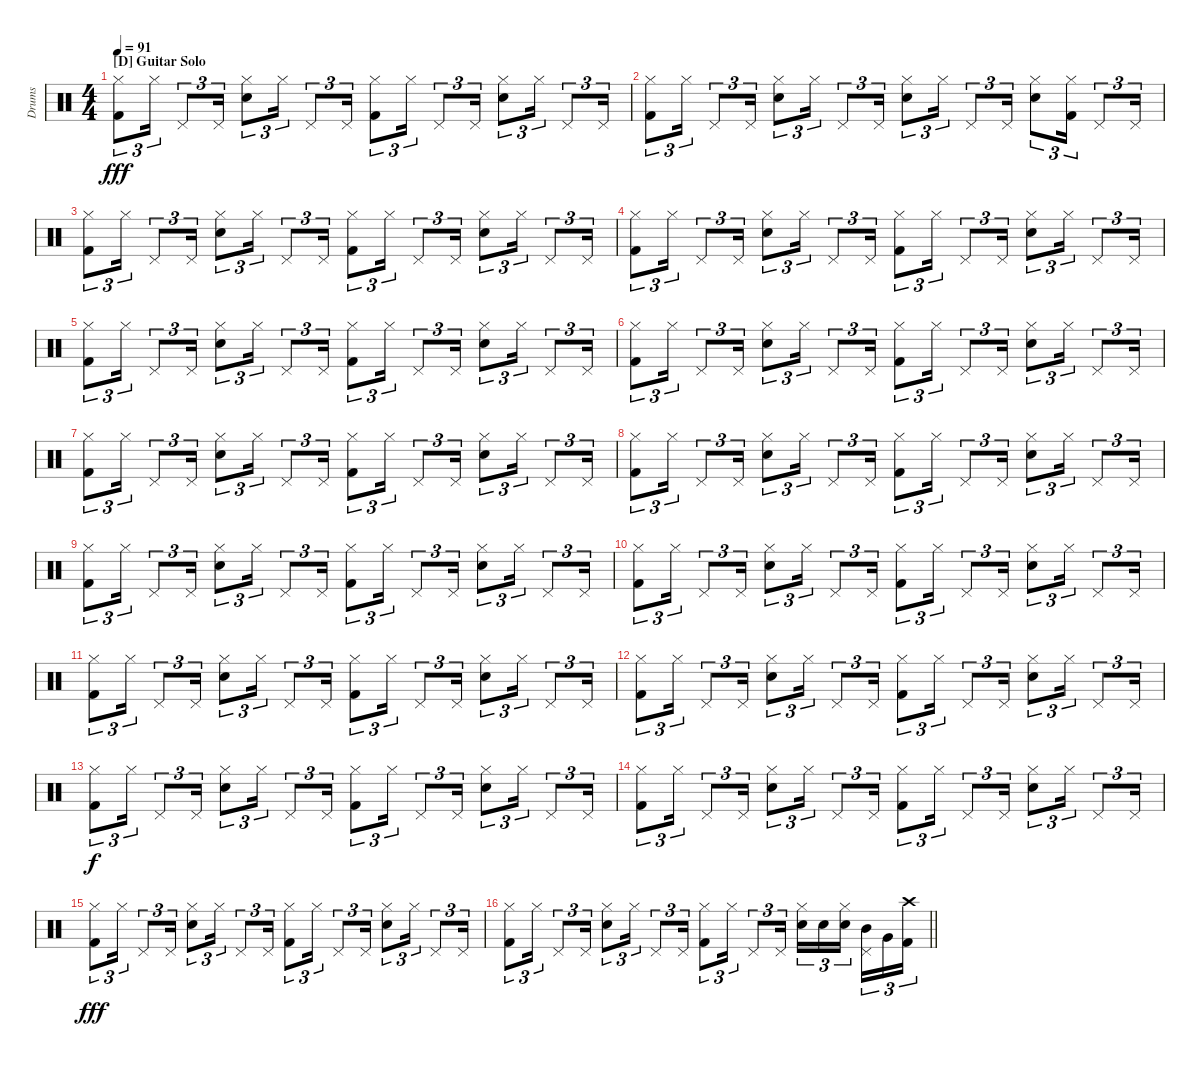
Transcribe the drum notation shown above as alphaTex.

\track ("Drums" "Drums") {instrument percussion}
\staff {score}
\articulation defaults
\ts (4 4)
\section ("" "[D] Guitar Solo")
\tempo 91
\clef neutral
\ks c
("Hi-Hat (closed)" "Kick (hit) 2").8{tu (3 2) dy fff} "Hi-Hat (closed)".16{tu (3 2)} "Pedal Hi-Hat (hit)".8{tu (3 2)} "Pedal Hi-Hat (hit)".16{tu (3 2)} ("Snare (hit) 2" "Hi-Hat (closed)").8{tu (3 2)} "Hi-Hat (closed)".16{tu (3 2)} "Pedal Hi-Hat (hit)".8{tu (3 2)} "Pedal Hi-Hat (hit)".16{tu (3 2)} ("Kick (hit) 2" "Hi-Hat (closed)").8{tu (3 2)} "Hi-Hat (closed)".16{tu (3 2)} "Pedal Hi-Hat (hit)".8{tu (3 2)} "Pedal Hi-Hat (hit)".16{tu (3 2)} ("Snare (hit) 2" "Hi-Hat (closed)").8{tu (3 2)} "Hi-Hat (closed)".16{tu (3 2)} "Pedal Hi-Hat (hit)".8{tu (3 2)} "Pedal Hi-Hat (hit)".16{tu (3 2)} |
("Hi-Hat (closed)" "Kick (hit) 2").8{tu (3 2)} "Hi-Hat (closed)".16{tu (3 2)} "Pedal Hi-Hat (hit)".8{tu (3 2)} "Pedal Hi-Hat (hit)".16{tu (3 2)} ("Snare (hit) 2" "Hi-Hat (closed)").8{tu (3 2)} "Hi-Hat (closed)".16{tu (3 2)} "Pedal Hi-Hat (hit)".8{tu (3 2)} "Pedal Hi-Hat (hit)".16{tu (3 2)} ("Hi-Hat (closed)" "Snare (hit) 2").8{tu (3 2)} "Hi-Hat (closed)".16{tu (3 2)} "Pedal Hi-Hat (hit)".8{tu (3 2)} "Pedal Hi-Hat (hit)".16{tu (3 2)} ("Hi-Hat (closed)" "Snare (hit) 2").8{tu (3 2)} ("Hi-Hat (closed)" "Kick (hit) 2").16{tu (3 2)} "Pedal Hi-Hat (hit)".8{tu (3 2)} "Pedal Hi-Hat (hit)".16{tu (3 2)} |
("Hi-Hat (closed)" "Kick (hit) 2").8{tu (3 2)} "Hi-Hat (closed)".16{tu (3 2)} "Pedal Hi-Hat (hit)".8{tu (3 2)} "Pedal Hi-Hat (hit)".16{tu (3 2)} ("Snare (hit) 2" "Hi-Hat (closed)").8{tu (3 2)} "Hi-Hat (closed)".16{tu (3 2)} "Pedal Hi-Hat (hit)".8{tu (3 2)} "Pedal Hi-Hat (hit)".16{tu (3 2)} ("Kick (hit) 2" "Hi-Hat (closed)").8{tu (3 2)} "Hi-Hat (closed)".16{tu (3 2)} "Pedal Hi-Hat (hit)".8{tu (3 2)} "Pedal Hi-Hat (hit)".16{tu (3 2)} ("Snare (hit) 2" "Hi-Hat (closed)").8{tu (3 2)} "Hi-Hat (closed)".16{tu (3 2)} "Pedal Hi-Hat (hit)".8{tu (3 2)} "Pedal Hi-Hat (hit)".16{tu (3 2)} |
("Hi-Hat (closed)" "Kick (hit) 2").8{tu (3 2)} "Hi-Hat (closed)".16{tu (3 2)} "Pedal Hi-Hat (hit)".8{tu (3 2)} "Pedal Hi-Hat (hit)".16{tu (3 2)} ("Snare (hit) 2" "Hi-Hat (closed)").8{tu (3 2)} "Hi-Hat (closed)".16{tu (3 2)} "Pedal Hi-Hat (hit)".8{tu (3 2)} "Pedal Hi-Hat (hit)".16{tu (3 2)} ("Kick (hit) 2" "Hi-Hat (closed)").8{tu (3 2)} "Hi-Hat (closed)".16{tu (3 2)} "Pedal Hi-Hat (hit)".8{tu (3 2)} "Pedal Hi-Hat (hit)".16{tu (3 2)} ("Snare (hit) 2" "Hi-Hat (closed)").8{tu (3 2)} "Hi-Hat (closed)".16{tu (3 2)} "Pedal Hi-Hat (hit)".8{tu (3 2)} "Pedal Hi-Hat (hit)".16{tu (3 2)} |
("Hi-Hat (closed)" "Kick (hit) 2").8{tu (3 2)} "Hi-Hat (closed)".16{tu (3 2)} "Pedal Hi-Hat (hit)".8{tu (3 2)} "Pedal Hi-Hat (hit)".16{tu (3 2)} ("Snare (hit) 2" "Hi-Hat (closed)").8{tu (3 2)} "Hi-Hat (closed)".16{tu (3 2)} "Pedal Hi-Hat (hit)".8{tu (3 2)} "Pedal Hi-Hat (hit)".16{tu (3 2)} ("Kick (hit) 2" "Hi-Hat (closed)").8{tu (3 2)} "Hi-Hat (closed)".16{tu (3 2)} "Pedal Hi-Hat (hit)".8{tu (3 2)} "Pedal Hi-Hat (hit)".16{tu (3 2)} ("Snare (hit) 2" "Hi-Hat (closed)").8{tu (3 2)} "Hi-Hat (closed)".16{tu (3 2)} "Pedal Hi-Hat (hit)".8{tu (3 2)} "Pedal Hi-Hat (hit)".16{tu (3 2)} |
("Hi-Hat (closed)" "Kick (hit) 2").8{tu (3 2)} "Hi-Hat (closed)".16{tu (3 2)} "Pedal Hi-Hat (hit)".8{tu (3 2)} "Pedal Hi-Hat (hit)".16{tu (3 2)} ("Snare (hit) 2" "Hi-Hat (closed)").8{tu (3 2)} "Hi-Hat (closed)".16{tu (3 2)} "Pedal Hi-Hat (hit)".8{tu (3 2)} "Pedal Hi-Hat (hit)".16{tu (3 2)} ("Kick (hit) 2" "Hi-Hat (closed)").8{tu (3 2)} "Hi-Hat (closed)".16{tu (3 2)} "Pedal Hi-Hat (hit)".8{tu (3 2)} "Pedal Hi-Hat (hit)".16{tu (3 2)} ("Snare (hit) 2" "Hi-Hat (closed)").8{tu (3 2)} "Hi-Hat (closed)".16{tu (3 2)} "Pedal Hi-Hat (hit)".8{tu (3 2)} "Pedal Hi-Hat (hit)".16{tu (3 2)} |
("Hi-Hat (closed)" "Kick (hit) 2").8{tu (3 2)} "Hi-Hat (closed)".16{tu (3 2)} "Pedal Hi-Hat (hit)".8{tu (3 2)} "Pedal Hi-Hat (hit)".16{tu (3 2)} ("Snare (hit) 2" "Hi-Hat (closed)").8{tu (3 2)} "Hi-Hat (closed)".16{tu (3 2)} "Pedal Hi-Hat (hit)".8{tu (3 2)} "Pedal Hi-Hat (hit)".16{tu (3 2)} ("Kick (hit) 2" "Hi-Hat (closed)").8{tu (3 2)} "Hi-Hat (closed)".16{tu (3 2)} "Pedal Hi-Hat (hit)".8{tu (3 2)} "Pedal Hi-Hat (hit)".16{tu (3 2)} ("Snare (hit) 2" "Hi-Hat (closed)").8{tu (3 2)} "Hi-Hat (closed)".16{tu (3 2)} "Pedal Hi-Hat (hit)".8{tu (3 2)} "Pedal Hi-Hat (hit)".16{tu (3 2)} |
("Hi-Hat (closed)" "Kick (hit) 2").8{tu (3 2)} "Hi-Hat (closed)".16{tu (3 2)} "Pedal Hi-Hat (hit)".8{tu (3 2)} "Pedal Hi-Hat (hit)".16{tu (3 2)} ("Snare (hit) 2" "Hi-Hat (closed)").8{tu (3 2)} "Hi-Hat (closed)".16{tu (3 2)} "Pedal Hi-Hat (hit)".8{tu (3 2)} "Pedal Hi-Hat (hit)".16{tu (3 2)} ("Kick (hit) 2" "Hi-Hat (closed)").8{tu (3 2)} "Hi-Hat (closed)".16{tu (3 2)} "Pedal Hi-Hat (hit)".8{tu (3 2)} "Pedal Hi-Hat (hit)".16{tu (3 2)} ("Snare (hit) 2" "Hi-Hat (closed)").8{tu (3 2)} "Hi-Hat (closed)".16{tu (3 2)} "Pedal Hi-Hat (hit)".8{tu (3 2)} "Pedal Hi-Hat (hit)".16{tu (3 2)} |
("Hi-Hat (closed)" "Kick (hit) 2").8{tu (3 2)} "Hi-Hat (closed)".16{tu (3 2)} "Pedal Hi-Hat (hit)".8{tu (3 2)} "Pedal Hi-Hat (hit)".16{tu (3 2)} ("Snare (hit) 2" "Hi-Hat (closed)").8{tu (3 2)} "Hi-Hat (closed)".16{tu (3 2)} "Pedal Hi-Hat (hit)".8{tu (3 2)} "Pedal Hi-Hat (hit)".16{tu (3 2)} ("Kick (hit) 2" "Hi-Hat (closed)").8{tu (3 2)} "Hi-Hat (closed)".16{tu (3 2)} "Pedal Hi-Hat (hit)".8{tu (3 2)} "Pedal Hi-Hat (hit)".16{tu (3 2)} ("Snare (hit) 2" "Hi-Hat (closed)").8{tu (3 2)} "Hi-Hat (closed)".16{tu (3 2)} "Pedal Hi-Hat (hit)".8{tu (3 2)} "Pedal Hi-Hat (hit)".16{tu (3 2)} |
("Hi-Hat (closed)" "Kick (hit) 2").8{tu (3 2)} "Hi-Hat (closed)".16{tu (3 2)} "Pedal Hi-Hat (hit)".8{tu (3 2)} "Pedal Hi-Hat (hit)".16{tu (3 2)} ("Snare (hit) 2" "Hi-Hat (closed)").8{tu (3 2)} "Hi-Hat (closed)".16{tu (3 2)} "Pedal Hi-Hat (hit)".8{tu (3 2)} "Pedal Hi-Hat (hit)".16{tu (3 2)} ("Kick (hit) 2" "Hi-Hat (closed)").8{tu (3 2)} "Hi-Hat (closed)".16{tu (3 2)} "Pedal Hi-Hat (hit)".8{tu (3 2)} "Pedal Hi-Hat (hit)".16{tu (3 2)} ("Snare (hit) 2" "Hi-Hat (closed)").8{tu (3 2)} "Hi-Hat (closed)".16{tu (3 2)} "Pedal Hi-Hat (hit)".8{tu (3 2)} "Pedal Hi-Hat (hit)".16{tu (3 2)} |
("Hi-Hat (closed)" "Kick (hit) 2").8{tu (3 2)} "Hi-Hat (closed)".16{tu (3 2)} "Pedal Hi-Hat (hit)".8{tu (3 2)} "Pedal Hi-Hat (hit)".16{tu (3 2)} ("Snare (hit) 2" "Hi-Hat (closed)").8{tu (3 2)} "Hi-Hat (closed)".16{tu (3 2)} "Pedal Hi-Hat (hit)".8{tu (3 2)} "Pedal Hi-Hat (hit)".16{tu (3 2)} ("Kick (hit) 2" "Hi-Hat (closed)").8{tu (3 2)} "Hi-Hat (closed)".16{tu (3 2)} "Pedal Hi-Hat (hit)".8{tu (3 2)} "Pedal Hi-Hat (hit)".16{tu (3 2)} ("Snare (hit) 2" "Hi-Hat (closed)").8{tu (3 2)} "Hi-Hat (closed)".16{tu (3 2)} "Pedal Hi-Hat (hit)".8{tu (3 2)} "Pedal Hi-Hat (hit)".16{tu (3 2)} |
("Hi-Hat (closed)" "Kick (hit) 2").8{tu (3 2)} "Hi-Hat (closed)".16{tu (3 2)} "Pedal Hi-Hat (hit)".8{tu (3 2)} "Pedal Hi-Hat (hit)".16{tu (3 2)} ("Snare (hit) 2" "Hi-Hat (closed)").8{tu (3 2)} "Hi-Hat (closed)".16{tu (3 2)} "Pedal Hi-Hat (hit)".8{tu (3 2)} "Pedal Hi-Hat (hit)".16{tu (3 2)} ("Kick (hit) 2" "Hi-Hat (closed)").8{tu (3 2)} "Hi-Hat (closed)".16{tu (3 2)} "Pedal Hi-Hat (hit)".8{tu (3 2)} "Pedal Hi-Hat (hit)".16{tu (3 2)} ("Snare (hit) 2" "Hi-Hat (closed)").8{tu (3 2)} "Hi-Hat (closed)".16{tu (3 2)} "Pedal Hi-Hat (hit)".8{tu (3 2)} "Pedal Hi-Hat (hit)".16{tu (3 2)} |
("Hi-Hat (closed)" "Kick (hit) 2").8{tu (3 2) dy f} "Hi-Hat (closed)".16{tu (3 2)} "Pedal Hi-Hat (hit)".8{tu (3 2)} "Pedal Hi-Hat (hit)".16{tu (3 2)} ("Snare (hit) 2" "Hi-Hat (closed)").8{tu (3 2)} "Hi-Hat (closed)".16{tu (3 2)} "Pedal Hi-Hat (hit)".8{tu (3 2)} "Pedal Hi-Hat (hit)".16{tu (3 2)} ("Kick (hit) 2" "Hi-Hat (closed)").8{tu (3 2)} "Hi-Hat (closed)".16{tu (3 2)} "Pedal Hi-Hat (hit)".8{tu (3 2)} "Pedal Hi-Hat (hit)".16{tu (3 2)} ("Snare (hit) 2" "Hi-Hat (closed)").8{tu (3 2)} "Hi-Hat (closed)".16{tu (3 2)} "Pedal Hi-Hat (hit)".8{tu (3 2)} "Pedal Hi-Hat (hit)".16{tu (3 2)} |
("Hi-Hat (closed)" "Kick (hit) 2").8{tu (3 2)} "Hi-Hat (closed)".16{tu (3 2)} "Pedal Hi-Hat (hit)".8{tu (3 2)} "Pedal Hi-Hat (hit)".16{tu (3 2)} ("Snare (hit) 2" "Hi-Hat (closed)").8{tu (3 2)} "Hi-Hat (closed)".16{tu (3 2)} "Pedal Hi-Hat (hit)".8{tu (3 2)} "Pedal Hi-Hat (hit)".16{tu (3 2)} ("Kick (hit) 2" "Hi-Hat (closed)").8{tu (3 2)} "Hi-Hat (closed)".16{tu (3 2)} "Pedal Hi-Hat (hit)".8{tu (3 2)} "Pedal Hi-Hat (hit)".16{tu (3 2)} ("Snare (hit) 2" "Hi-Hat (closed)").8{tu (3 2)} "Hi-Hat (closed)".16{tu (3 2)} "Pedal Hi-Hat (hit)".8{tu (3 2)} "Pedal Hi-Hat (hit)".16{tu (3 2)} |
("Hi-Hat (closed)" "Kick (hit) 2").8{tu (3 2) dy fff} "Hi-Hat (closed)".16{tu (3 2)} "Pedal Hi-Hat (hit)".8{tu (3 2)} "Pedal Hi-Hat (hit)".16{tu (3 2)} ("Snare (hit) 2" "Hi-Hat (closed)").8{tu (3 2)} "Hi-Hat (closed)".16{tu (3 2)} "Pedal Hi-Hat (hit)".8{tu (3 2)} "Pedal Hi-Hat (hit)".16{tu (3 2)} ("Kick (hit) 2" "Hi-Hat (closed)").8{tu (3 2)} "Hi-Hat (closed)".16{tu (3 2)} "Pedal Hi-Hat (hit)".8{tu (3 2)} "Pedal Hi-Hat (hit)".16{tu (3 2)} ("Snare (hit) 2" "Hi-Hat (closed)").8{tu (3 2)} "Hi-Hat (closed)".16{tu (3 2)} "Pedal Hi-Hat (hit)".8{tu (3 2)} "Pedal Hi-Hat (hit)".16{tu (3 2)} |
\barLineRight lightlight
("Hi-Hat (closed)" "Kick (hit) 2").8{tu (3 2)} "Hi-Hat (closed)".16{tu (3 2)} "Pedal Hi-Hat (hit)".8{tu (3 2)} "Pedal Hi-Hat (hit)".16{tu (3 2)} ("Snare (hit) 2" "Hi-Hat (closed)").8{tu (3 2)} "Hi-Hat (closed)".16{tu (3 2)} "Pedal Hi-Hat (hit)".8{tu (3 2)} "Pedal Hi-Hat (hit)".16{tu (3 2)} ("Kick (hit) 2" "Hi-Hat (closed)").8{tu (3 2)} "Hi-Hat (closed)".16{tu (3 2)} "Pedal Hi-Hat (hit)".8{tu (3 2)} "Pedal Hi-Hat (hit)".16{tu (3 2)} ("Snare (hit) 2" "Hi-Hat (closed)").16{tu (3 2)} "Snare (hit) 2".16{tu (3 2)} ("Snare (hit) 2" "Hi-Hat (closed)").16{tu (3 2)} ("Mid Tom (hit)" "Pedal Hi-Hat (hit)").16{tu (3 2)} "Very Low Tom (hit)".16{tu (3 2)} ("Crash high (hit)" "Kick (hit) 2").16{tu (3 2)}
